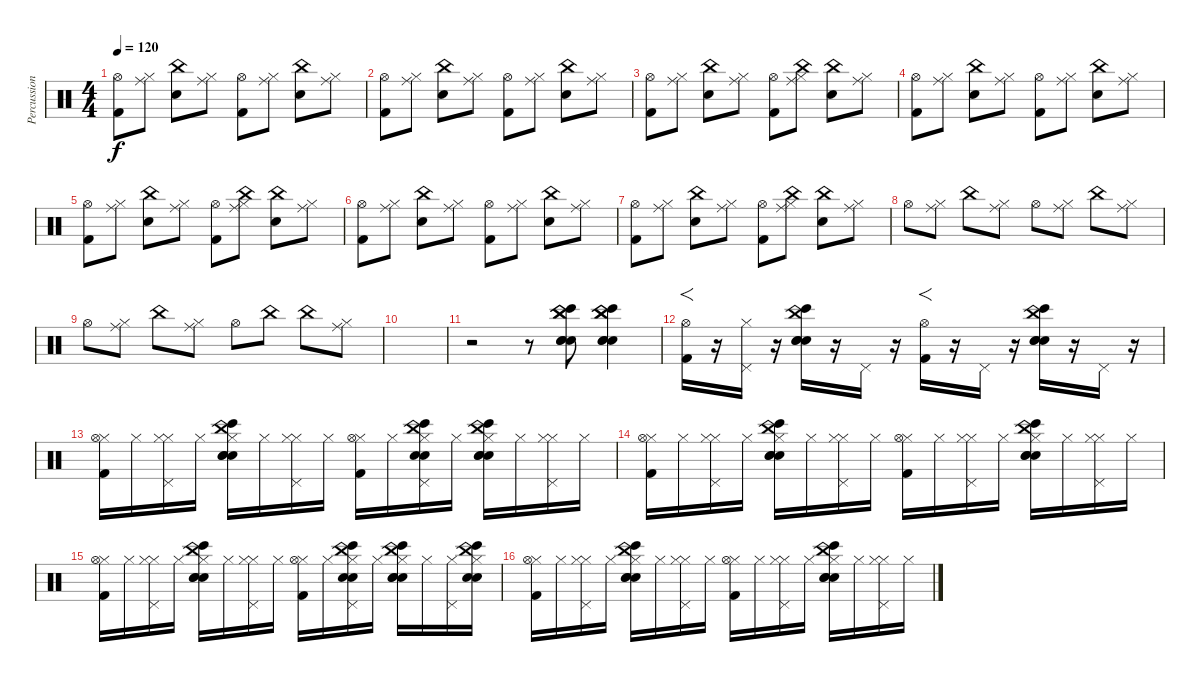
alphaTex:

\track ("Percussion" "Percussion") {instrument percussion}
\staff {score}
\articulation defaults
\ts (4 4)
\tempo 120
\clef neutral
\ks c
("Hi-Hat (open)" "Kick (hit) 2").8{dy f} ("Hi-Hat (closed)" "Ride (middle)").8 ("China (hit)" "Snare (hit) 2").8 ("Hi-Hat (closed)" "Ride (middle)").8 ("Hi-Hat (open)" "Kick (hit) 2").8 ("Hi-Hat (closed)" "Ride (middle)").8 ("China (hit)" "Snare (hit) 2").8 ("Hi-Hat (closed)" "Ride (middle)").8 |
("Hi-Hat (open)" "Kick (hit) 2").8 ("Hi-Hat (closed)" "Ride (middle)").8 ("China (hit)" "Snare (hit) 2").8 ("Hi-Hat (closed)" "Ride (middle)").8 ("Hi-Hat (open)" "Kick (hit) 2").8 ("Hi-Hat (closed)" "Ride (middle)").8 ("China (hit)" "Snare (hit) 2").8 ("Hi-Hat (closed)" "Ride (middle)").8 |
("Hi-Hat (open)" "Kick (hit) 2").8 ("Hi-Hat (closed)" "Ride (middle)").8 ("China (hit)" "Snare (hit) 2").8 ("Hi-Hat (closed)" "Ride (middle)").8 ("Hi-Hat (open)" "Kick (hit) 2").8 ("Hi-Hat (closed)" "China (hit)" "Ride (middle)").8 ("China (hit)" "Snare (hit) 2").8 ("Hi-Hat (closed)" "Ride (middle)").8 |
("Hi-Hat (open)" "Kick (hit) 2").8 ("Hi-Hat (closed)" "Ride (middle)").8 ("China (hit)" "Snare (hit) 2").8 ("Hi-Hat (closed)" "Ride (middle)").8 ("Hi-Hat (open)" "Kick (hit) 2").8 ("Hi-Hat (closed)" "Ride (middle)").8 ("China (hit)" "Snare (hit) 2").8 ("Hi-Hat (closed)" "Ride (middle)").8 |
("Hi-Hat (open)" "Kick (hit) 2").8 ("Hi-Hat (closed)" "Ride (middle)").8 ("China (hit)" "Snare (hit) 2").8 ("Hi-Hat (closed)" "Ride (middle)").8 ("Hi-Hat (open)" "Kick (hit) 2").8 ("Hi-Hat (closed)" "China (hit)" "Ride (middle)").8 ("China (hit)" "Snare (hit) 2").8 ("Hi-Hat (closed)" "Ride (middle)").8 |
("Hi-Hat (open)" "Kick (hit) 2").8 ("Hi-Hat (closed)" "Ride (middle)").8 ("China (hit)" "Snare (hit) 2").8 ("Hi-Hat (closed)" "Ride (middle)").8 ("Hi-Hat (open)" "Kick (hit) 2").8 ("Hi-Hat (closed)" "Ride (middle)").8 ("China (hit)" "Snare (hit) 2").8 ("Hi-Hat (closed)" "Ride (middle)").8 |
("Hi-Hat (open)" "Kick (hit) 2").8 ("Hi-Hat (closed)" "Ride (middle)").8 ("China (hit)" "Snare (hit) 2").8 ("Hi-Hat (closed)" "Ride (middle)").8 ("Hi-Hat (open)" "Kick (hit) 2").8 ("Hi-Hat (closed)" "China (hit)" "Ride (middle)").8 ("China (hit)" "Snare (hit) 2").8 ("Hi-Hat (closed)" "Ride (middle)").8 |
"Hi-Hat (open)".8 ("Hi-Hat (closed)" "Ride (middle)").8 "China (hit)".8 ("Hi-Hat (closed)" "Ride (middle)").8 "Hi-Hat (open)".8 ("Hi-Hat (closed)" "Ride (middle)").8 "China (hit)".8 ("Hi-Hat (closed)" "Ride (middle)").8 |
"Hi-Hat (open)".8 ("Hi-Hat (closed)" "Ride (middle)").8 "China (hit)".8 ("Hi-Hat (closed)" "Ride (middle)").8 "Hi-Hat (open)".8 "China (hit)".8 "China (hit)".8 ("Hi-Hat (closed)" "Ride (middle)").8 |
|
r.2 r.8 ("China (hit)" "Bongo High (hit)" "China (hit)" "Hand Clap (hit)" "Hand Clap (hit)" "Hand Clap (hit)").8 ("China (hit)" "Bongo High (hit)" "China (hit)" "Hand Clap (hit)" "Hand Clap (hit)" "Hand Clap (hit)").4 |
("Kick (hit) 2" "Hi-Hat (open)").16{f} r.16 ("Pedal Hi-Hat (hit)" "Hi-Hat (closed)").16 r.16 ("Snare (hit) 2" "China (hit)" "Bongo High (hit)" "Hand Clap (hit)" "Hand Clap (hit)").16 r.16 "Pedal Hi-Hat (hit)".16 r.16 ("Kick (hit) 2" "Hi-Hat (open)").16{f} r.16 "Pedal Hi-Hat (hit)".16 r.16 ("Snare (hit) 2" "China (hit)" "Bongo High (hit)" "Hand Clap (hit)" "Hand Clap (hit)").16 r.16 "Pedal Hi-Hat (hit)".16 r.16 |
("Hi-Hat (closed)" "Kick (hit) 2" "Hi-Hat (open)").16 "Hi-Hat (closed)".16 ("Hi-Hat (closed)" "Pedal Hi-Hat (hit)" "Hi-Hat (closed)").16 "Hi-Hat (closed)".16 ("Hi-Hat (closed)" "Snare (hit) 2" "China (hit)" "Bongo High (hit)" "Hand Clap (hit)" "Hand Clap (hit)").16 "Hi-Hat (closed)".16 ("Hi-Hat (closed)" "Pedal Hi-Hat (hit)" "Hi-Hat (closed)").16 "Hi-Hat (closed)".16 ("Hi-Hat (closed)" "Kick (hit) 2" "Hi-Hat (open)").16 "Hi-Hat (closed)".16 ("Hi-Hat (closed)" "Pedal Hi-Hat (hit)" "China (hit)" "Bongo High (hit)" "Hand Clap (hit)" "Hand Clap (hit)").16 "Hi-Hat (closed)".16 ("Hi-Hat (closed)" "Snare (hit) 2" "China (hit)" "Bongo High (hit)" "Hand Clap (hit)" "Hand Clap (hit)").16 "Hi-Hat (closed)".16 ("Hi-Hat (closed)" "Pedal Hi-Hat (hit)" "Hi-Hat (closed)").16 "Hi-Hat (closed)".16 |
("Hi-Hat (closed)" "Kick (hit) 2" "Hi-Hat (open)").16 "Hi-Hat (closed)".16 ("Hi-Hat (closed)" "Pedal Hi-Hat (hit)" "Hi-Hat (closed)").16 "Hi-Hat (closed)".16 ("Hi-Hat (closed)" "Snare (hit) 2" "China (hit)" "Bongo High (hit)" "Hand Clap (hit)" "Hand Clap (hit)").16 "Hi-Hat (closed)".16 ("Hi-Hat (closed)" "Pedal Hi-Hat (hit)" "Hi-Hat (closed)").16 "Hi-Hat (closed)".16 ("Hi-Hat (closed)" "Kick (hit) 2" "Hi-Hat (open)").16 "Hi-Hat (closed)".16 ("Hi-Hat (closed)" "Pedal Hi-Hat (hit)" "Hi-Hat (closed)").16 "Hi-Hat (closed)".16 ("Hi-Hat (closed)" "Snare (hit) 2" "China (hit)" "Bongo High (hit)" "Hand Clap (hit)" "Hand Clap (hit)").16 "Hi-Hat (closed)".16 ("Hi-Hat (closed)" "Pedal Hi-Hat (hit)" "Hi-Hat (closed)").16 "Hi-Hat (closed)".16 |
("Hi-Hat (closed)" "Kick (hit) 2" "Hi-Hat (open)").16 "Hi-Hat (closed)".16 ("Hi-Hat (closed)" "Pedal Hi-Hat (hit)" "Hi-Hat (closed)").16 "Hi-Hat (closed)".16 ("Hi-Hat (closed)" "Snare (hit) 2" "China (hit)" "Bongo High (hit)" "Hand Clap (hit)" "Hand Clap (hit)").16 "Hi-Hat (closed)".16 ("Hi-Hat (closed)" "Pedal Hi-Hat (hit)" "Hi-Hat (closed)").16 "Hi-Hat (closed)".16 ("Hi-Hat (closed)" "Kick (hit) 2" "Hi-Hat (open)").16 "Hi-Hat (closed)".16 ("Hi-Hat (closed)" "Pedal Hi-Hat (hit)" "China (hit)" "Bongo High (hit)" "Hand Clap (hit)" "Hand Clap (hit)").16 "Hi-Hat (closed)".16 ("Hi-Hat (closed)" "Snare (hit) 2" "China (hit)" "Bongo High (hit)" "Hand Clap (hit)" "Hand Clap (hit)").16 "Hi-Hat (closed)".16 ("Hi-Hat (closed)" "Pedal Hi-Hat (hit)").16 ("Hi-Hat (closed)" "China (hit)" "Bongo High (hit)" "Hand Clap (hit)" "Hand Clap (hit)").16 |
("Hi-Hat (closed)" "Kick (hit) 2" "Hi-Hat (open)").16 "Hi-Hat (closed)".16 ("Hi-Hat (closed)" "Pedal Hi-Hat (hit)" "Hi-Hat (closed)").16 "Hi-Hat (closed)".16 ("Hi-Hat (closed)" "Snare (hit) 2" "China (hit)" "Bongo High (hit)" "Hand Clap (hit)" "Hand Clap (hit)").16 "Hi-Hat (closed)".16 ("Hi-Hat (closed)" "Pedal Hi-Hat (hit)" "Hi-Hat (closed)").16 "Hi-Hat (closed)".16 ("Hi-Hat (closed)" "Kick (hit) 2" "Hi-Hat (open)").16 "Hi-Hat (closed)".16 ("Hi-Hat (closed)" "Pedal Hi-Hat (hit)" "Hi-Hat (closed)").16 "Hi-Hat (closed)".16 ("Hi-Hat (closed)" "Snare (hit) 2" "China (hit)" "Bongo High (hit)" "Hand Clap (hit)" "Hand Clap (hit)").16 "Hi-Hat (closed)".16 ("Hi-Hat (closed)" "Pedal Hi-Hat (hit)" "Hi-Hat (closed)").16 "Hi-Hat (closed)".16
